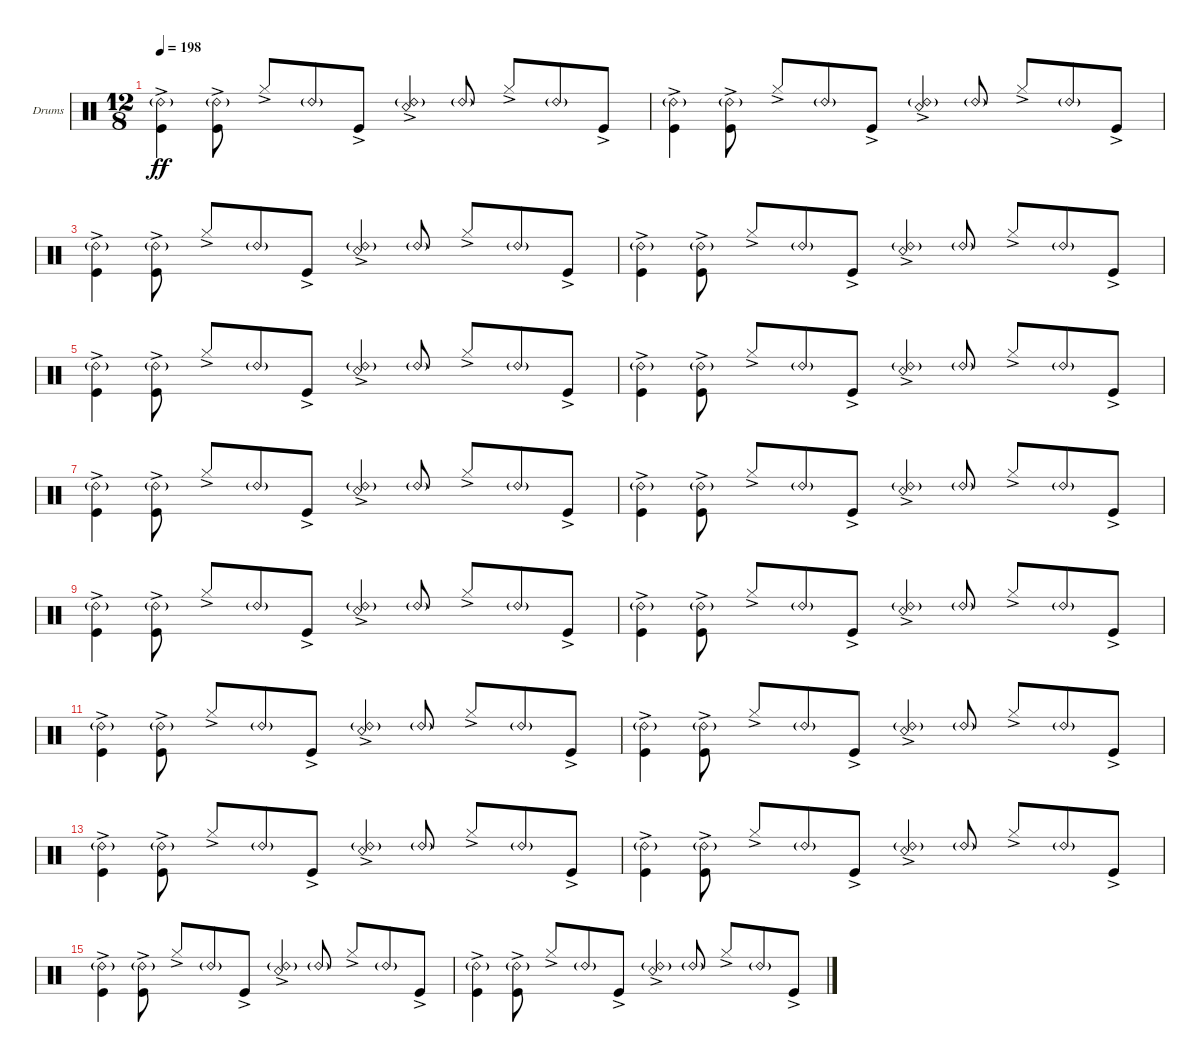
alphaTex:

\bracketExtendMode nobrackets
\firstSystemTrackNameOrientation horizontal
\otherSystemsTrackNameOrientation horizontal
\defaultBarNumberDisplay FirstOfSystem
\track ("Drumkit" "Drums") {instrument percussion}
\staff {score}
\articulation defaults
\ts (12 8)
\tempo 198
\clef neutral
\ks c
("Kick (hit)"{ac} "Ride (bell) 2"{g}).4{dy ff beam invert} ("Kick (hit)"{ac} "Ride (bell) 2"{g}).8{beam invert} "Hi-Hat (closed)"{ac}.8 "Ride (bell) 2"{g}.8 "Kick (hit)"{ac}.8{beam invert} ("Snare (rim shot)"{ac} "Ride (bell) 2"{g}).4 "Ride (bell) 2"{g}.8{beam invert} "Hi-Hat (closed)"{ac}.8{beam invert} "Ride (bell) 2"{g}.8 "Kick (hit)"{ac}.8 |
("Kick (hit)"{ac} "Ride (bell) 2"{g}).4{beam invert} ("Kick (hit)"{ac} "Ride (bell) 2"{g}).8{beam invert} "Hi-Hat (closed)"{ac}.8 "Ride (bell) 2"{g}.8 "Kick (hit)"{ac}.8{beam invert} ("Snare (rim shot)"{ac} "Ride (bell) 2"{g}).4 "Ride (bell) 2"{g}.8{beam invert} "Hi-Hat (closed)"{ac}.8{beam invert} "Ride (bell) 2"{g}.8 "Kick (hit)"{ac}.8 |
("Kick (hit)"{ac} "Ride (bell) 2"{g}).4{beam invert} ("Kick (hit)"{ac} "Ride (bell) 2"{g}).8{beam invert} "Hi-Hat (closed)"{ac}.8 "Ride (bell) 2"{g}.8 "Kick (hit)"{ac}.8{beam invert} ("Snare (rim shot)"{ac} "Ride (bell) 2"{g}).4 "Ride (bell) 2"{g}.8{beam invert} "Hi-Hat (closed)"{ac}.8{beam invert} "Ride (bell) 2"{g}.8 "Kick (hit)"{ac}.8 |
("Kick (hit)"{ac} "Ride (bell) 2"{g}).4{beam invert} ("Kick (hit)"{ac} "Ride (bell) 2"{g}).8{beam invert} "Hi-Hat (closed)"{ac}.8 "Ride (bell) 2"{g}.8 "Kick (hit)"{ac}.8{beam invert} ("Snare (rim shot)"{ac} "Ride (bell) 2"{g}).4 "Ride (bell) 2"{g}.8{beam invert} "Hi-Hat (closed)"{ac}.8{beam invert} "Ride (bell) 2"{g}.8 "Kick (hit)"{ac}.8 |
("Kick (hit)"{ac} "Ride (bell) 2"{g}).4{beam invert} ("Kick (hit)"{ac} "Ride (bell) 2"{g}).8{beam invert} "Hi-Hat (closed)"{ac}.8 "Ride (bell) 2"{g}.8 "Kick (hit)"{ac}.8{beam invert} ("Snare (rim shot)"{ac} "Ride (bell) 2"{g}).4 "Ride (bell) 2"{g}.8{beam invert} "Hi-Hat (closed)"{ac}.8{beam invert} "Ride (bell) 2"{g}.8 "Kick (hit)"{ac}.8 |
("Kick (hit)"{ac} "Ride (bell) 2"{g}).4{beam invert} ("Kick (hit)"{ac} "Ride (bell) 2"{g}).8{beam invert} "Hi-Hat (closed)"{ac}.8 "Ride (bell) 2"{g}.8 "Kick (hit)"{ac}.8{beam invert} ("Snare (rim shot)"{ac} "Ride (bell) 2"{g}).4 "Ride (bell) 2"{g}.8{beam invert} "Hi-Hat (closed)"{ac}.8{beam invert} "Ride (bell) 2"{g}.8 "Kick (hit)"{ac}.8 |
("Kick (hit)"{ac} "Ride (bell) 2"{g}).4{beam invert} ("Kick (hit)"{ac} "Ride (bell) 2"{g}).8{beam invert} "Hi-Hat (closed)"{ac}.8 "Ride (bell) 2"{g}.8 "Kick (hit)"{ac}.8{beam invert} ("Snare (rim shot)"{ac} "Ride (bell) 2"{g}).4 "Ride (bell) 2"{g}.8{beam invert} "Hi-Hat (closed)"{ac}.8{beam invert} "Ride (bell) 2"{g}.8 "Kick (hit)"{ac}.8 |
("Kick (hit)"{ac} "Ride (bell) 2"{g}).4{beam invert} ("Kick (hit)"{ac} "Ride (bell) 2"{g}).8{beam invert} "Hi-Hat (closed)"{ac}.8 "Ride (bell) 2"{g}.8 "Kick (hit)"{ac}.8{beam invert} ("Snare (rim shot)"{ac} "Ride (bell) 2"{g}).4 "Ride (bell) 2"{g}.8{beam invert} "Hi-Hat (closed)"{ac}.8{beam invert} "Ride (bell) 2"{g}.8 "Kick (hit)"{ac}.8 |
("Kick (hit)"{ac} "Ride (bell) 2"{g}).4{beam invert} ("Kick (hit)"{ac} "Ride (bell) 2"{g}).8{beam invert} "Hi-Hat (closed)"{ac}.8 "Ride (bell) 2"{g}.8 "Kick (hit)"{ac}.8{beam invert} ("Snare (rim shot)"{ac} "Ride (bell) 2"{g}).4 "Ride (bell) 2"{g}.8{beam invert} "Hi-Hat (closed)"{ac}.8{beam invert} "Ride (bell) 2"{g}.8 "Kick (hit)"{ac}.8 |
("Kick (hit)"{ac} "Ride (bell) 2"{g}).4{beam invert} ("Kick (hit)"{ac} "Ride (bell) 2"{g}).8{beam invert} "Hi-Hat (closed)"{ac}.8 "Ride (bell) 2"{g}.8 "Kick (hit)"{ac}.8{beam invert} ("Snare (rim shot)"{ac} "Ride (bell) 2"{g}).4 "Ride (bell) 2"{g}.8{beam invert} "Hi-Hat (closed)"{ac}.8{beam invert} "Ride (bell) 2"{g}.8 "Kick (hit)"{ac}.8 |
("Kick (hit)"{ac} "Ride (bell) 2"{g}).4{beam invert} ("Kick (hit)"{ac} "Ride (bell) 2"{g}).8{beam invert} "Hi-Hat (closed)"{ac}.8 "Ride (bell) 2"{g}.8 "Kick (hit)"{ac}.8{beam invert} ("Snare (rim shot)"{ac} "Ride (bell) 2"{g}).4 "Ride (bell) 2"{g}.8{beam invert} "Hi-Hat (closed)"{ac}.8{beam invert} "Ride (bell) 2"{g}.8 "Kick (hit)"{ac}.8 |
("Kick (hit)"{ac} "Ride (bell) 2"{g}).4{beam invert} ("Kick (hit)"{ac} "Ride (bell) 2"{g}).8{beam invert} "Hi-Hat (closed)"{ac}.8 "Ride (bell) 2"{g}.8 "Kick (hit)"{ac}.8{beam invert} ("Snare (rim shot)"{ac} "Ride (bell) 2"{g}).4 "Ride (bell) 2"{g}.8{beam invert} "Hi-Hat (closed)"{ac}.8{beam invert} "Ride (bell) 2"{g}.8 "Kick (hit)"{ac}.8 |
("Kick (hit)"{ac} "Ride (bell) 2"{g}).4{beam invert} ("Kick (hit)"{ac} "Ride (bell) 2"{g}).8{beam invert} "Hi-Hat (closed)"{ac}.8 "Ride (bell) 2"{g}.8 "Kick (hit)"{ac}.8{beam invert} ("Snare (rim shot)"{ac} "Ride (bell) 2"{g}).4 "Ride (bell) 2"{g}.8{beam invert} "Hi-Hat (closed)"{ac}.8{beam invert} "Ride (bell) 2"{g}.8 "Kick (hit)"{ac}.8 |
("Kick (hit)"{ac} "Ride (bell) 2"{g}).4{beam invert} ("Kick (hit)"{ac} "Ride (bell) 2"{g}).8{beam invert} "Hi-Hat (closed)"{ac}.8 "Ride (bell) 2"{g}.8 "Kick (hit)"{ac}.8{beam invert} ("Snare (rim shot)"{ac} "Ride (bell) 2"{g}).4 "Ride (bell) 2"{g}.8{beam invert} "Hi-Hat (closed)"{ac}.8{beam invert} "Ride (bell) 2"{g}.8 "Kick (hit)"{ac}.8 |
("Kick (hit)"{ac} "Ride (bell) 2"{g}).4{beam invert} ("Kick (hit)"{ac} "Ride (bell) 2"{g}).8{beam invert} "Hi-Hat (closed)"{ac}.8 "Ride (bell) 2"{g}.8 "Kick (hit)"{ac}.8{beam invert} ("Snare (rim shot)"{ac} "Ride (bell) 2"{g}).4 "Ride (bell) 2"{g}.8{beam invert} "Hi-Hat (closed)"{ac}.8{beam invert} "Ride (bell) 2"{g}.8 "Kick (hit)"{ac}.8 |
("Kick (hit)"{ac} "Ride (bell) 2"{g}).4{beam invert} ("Kick (hit)"{ac} "Ride (bell) 2"{g}).8{beam invert} "Hi-Hat (closed)"{ac}.8 "Ride (bell) 2"{g}.8 "Kick (hit)"{ac}.8{beam invert} ("Snare (rim shot)"{ac} "Ride (bell) 2"{g}).4 "Ride (bell) 2"{g}.8{beam invert} "Hi-Hat (closed)"{ac}.8{beam invert} "Ride (bell) 2"{g}.8 "Kick (hit)"{ac}.8
